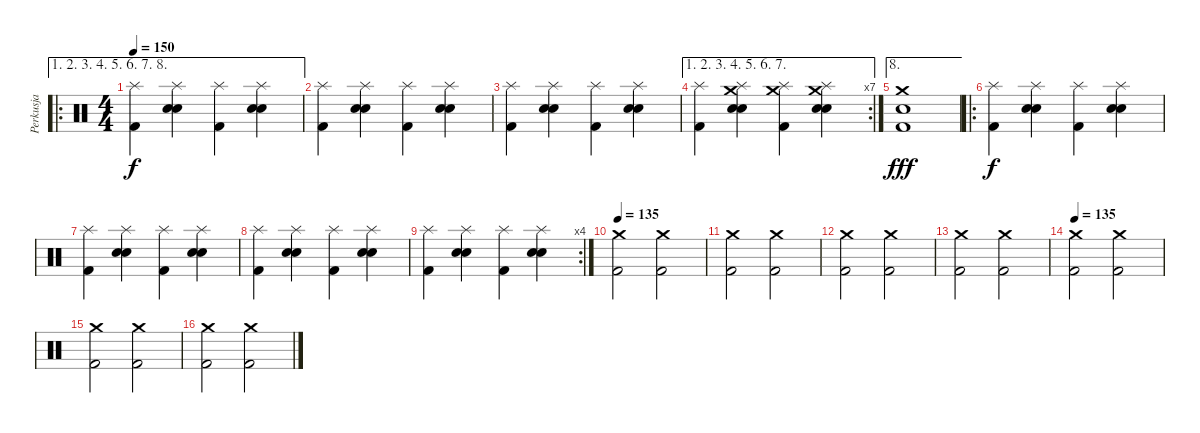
\track ("Perkusja" "Perkusja") {instrument percussion}
\staff {score}
\articulation defaults
\ae (1 2 3 4 5 6 7 8)
\ro
\ts (4 4)
\tempo 150
\clef neutral
\ks c
("Splash (hit)" "Kick (hit) 2").4{dy f} ("Splash (hit)" "Snare (hit) 2" "Snare (hit) 2").4 ("Splash (hit)" "Kick (hit) 2").4 ("Splash (hit)" "Snare (hit) 2" "Snare (hit) 2").4 |
("Splash (hit)" "Kick (hit) 2").4 ("Splash (hit)" "Snare (hit) 2" "Snare (hit) 2").4 ("Splash (hit)" "Kick (hit) 2").4 ("Splash (hit)" "Snare (hit) 2" "Snare (hit) 2").4 |
("Splash (hit)" "Kick (hit) 2").4 ("Splash (hit)" "Snare (hit) 2" "Snare (hit) 2").4 ("Splash (hit)" "Kick (hit) 2").4 ("Splash (hit)" "Snare (hit) 2" "Snare (hit) 2").4 |
\ae (1 2 3 4 5 6 7)
\rc 7
("Splash (hit)" "Kick (hit) 2").4 ("Crash medium (hit)" "Splash (hit)" "Snare (hit) 2" "Snare (hit) 2").4 ("Crash medium (hit)" "Splash (hit)" "Kick (hit) 2").4 ("Crash medium (hit)" "Splash (hit)" "Snare (hit) 2" "Snare (hit) 2").4 |
\ae 8
("Crash medium (hit)" "Kick (hit) 2" "Snare (hit) 2"{tr (38 16)}).1{dy fff} |
\ro
("Splash (hit)" "Kick (hit) 2").4{dy f} ("Splash (hit)" "Snare (hit) 2" "Snare (hit) 2").4 ("Splash (hit)" "Kick (hit) 2").4 ("Splash (hit)" "Snare (hit) 2" "Snare (hit) 2").4 |
("Splash (hit)" "Kick (hit) 2").4 ("Splash (hit)" "Snare (hit) 2" "Snare (hit) 2").4 ("Splash (hit)" "Kick (hit) 2").4 ("Splash (hit)" "Snare (hit) 2" "Snare (hit) 2").4 |
("Splash (hit)" "Kick (hit) 2").4 ("Splash (hit)" "Snare (hit) 2" "Snare (hit) 2").4 ("Splash (hit)" "Kick (hit) 2").4 ("Splash (hit)" "Snare (hit) 2" "Snare (hit) 2").4 |
\rc 4
("Splash (hit)" "Kick (hit) 2").4 ("Splash (hit)" "Snare (hit) 2" "Snare (hit) 2").4 ("Splash (hit)" "Kick (hit) 2").4 ("Splash (hit)" "Snare (hit) 2" "Snare (hit) 2").4 |
\tempo 135
("Crash medium (hit)" "Kick (hit) 2").2 ("Crash medium (hit)" "Kick (hit) 2").2 |
("Crash medium (hit)" "Kick (hit) 2").2 ("Crash medium (hit)" "Kick (hit) 2").2 |
("Crash medium (hit)" "Kick (hit) 2").2 ("Crash medium (hit)" "Kick (hit) 2").2 |
("Crash medium (hit)" "Kick (hit) 2").2 ("Crash medium (hit)" "Kick (hit) 2").2 |
\tempo 135
("Crash medium (hit)" "Kick (hit) 2").2 ("Crash medium (hit)" "Kick (hit) 2").2 |
("Crash medium (hit)" "Kick (hit) 2").2 ("Crash medium (hit)" "Kick (hit) 2").2 |
("Crash medium (hit)" "Kick (hit) 2").2 ("Crash medium (hit)" "Kick (hit) 2").2
